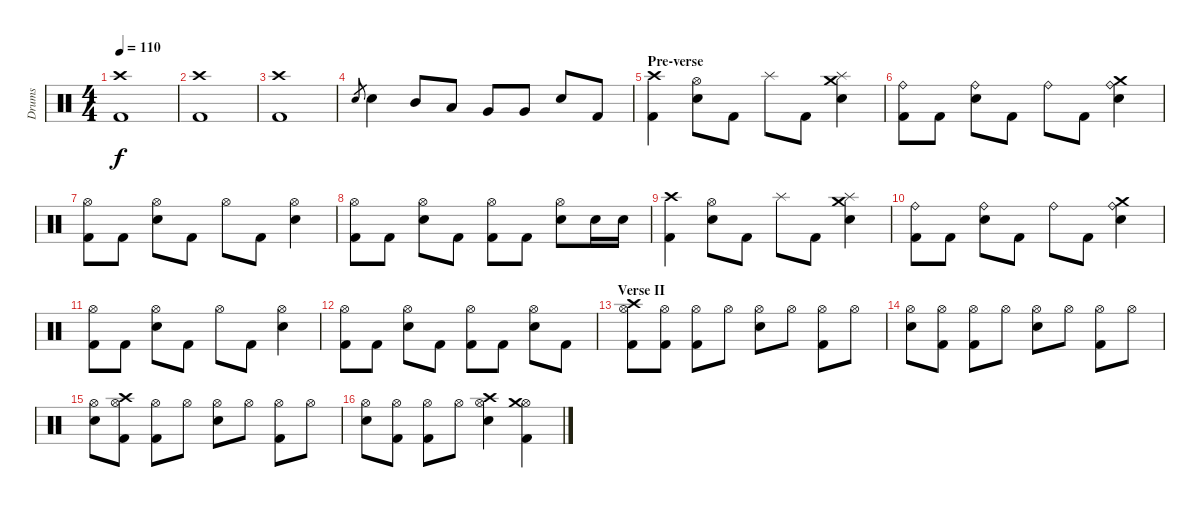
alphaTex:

\track ("Drums" "Drums") {instrument percussion}
\staff {score}
\articulation defaults
\ts (4 4)
\tempo 110
\clef neutral
\ks c
("Kick (hit) 2" "Crash high (hit)").1{dy f} |
("Kick (hit) 2" "Crash high (hit)").1 |
("Kick (hit) 2" "Crash high (hit)").1 |
"Electric Snare (hit)".8{gr} "Electric Snare (hit)".4 "Mid Tom (hit)".8 "Low Tom (hit)".8 "Very Low Tom (hit)".8 "Very Low Tom (hit)".8 "Electric Snare (hit)".8 "Kick (hit) 2".8 |
\section ("" "Pre-verse")
("Crash high (hit)" "Kick (hit) 2").4 ("Electric Snare (hit)" "Hi-Hat (open)").8 "Kick (hit) 2".8 "Splash (hit)".8 "Kick (hit) 2".8 ("Splash (hit)" "Electric Snare (hit)" "Crash medium (hit)").4 |
("Ride (bell)" "Kick (hit) 2").8 "Kick (hit) 2".8 ("Ride (bell)" "Electric Snare (hit)").8 "Kick (hit) 2".8 "Ride (bell)".8 "Kick (hit) 2".8 ("Ride (bell)" "Electric Snare (hit)" "Crash medium (hit)").4 |
("Hi-Hat (open)" "Kick (hit) 2").8 "Kick (hit) 2".8 ("Hi-Hat (open)" "Electric Snare (hit)").8 "Kick (hit) 2".8 "Hi-Hat (open)".8 "Kick (hit) 2".8 ("Hi-Hat (open)" "Electric Snare (hit)").4 |
("Hi-Hat (open)" "Kick (hit) 2").8 "Kick (hit) 2".8 ("Hi-Hat (open)" "Electric Snare (hit)").8 "Kick (hit) 2".8 ("Hi-Hat (open)" "Kick (hit) 2").8 "Kick (hit) 2".8 ("Hi-Hat (open)" "Electric Snare (hit)").8 "Electric Snare (hit)".16 "Electric Snare (hit)".16 |
("Crash high (hit)" "Kick (hit) 2").4 ("Electric Snare (hit)" "Hi-Hat (open)").8 "Kick (hit) 2".8 "Splash (hit)".8 "Kick (hit) 2".8 ("Splash (hit)" "Electric Snare (hit)" "Crash medium (hit)").4 |
("Ride (bell)" "Kick (hit) 2").8 "Kick (hit) 2".8 ("Ride (bell)" "Electric Snare (hit)").8 "Kick (hit) 2".8 "Ride (bell)".8 "Kick (hit) 2".8 ("Ride (bell)" "Electric Snare (hit)" "Crash medium (hit)").4 |
("Hi-Hat (open)" "Kick (hit) 2").8 "Kick (hit) 2".8 ("Hi-Hat (open)" "Electric Snare (hit)").8 "Kick (hit) 2".8 "Hi-Hat (open)".8 "Kick (hit) 2".8 ("Hi-Hat (open)" "Electric Snare (hit)").4 |
("Hi-Hat (open)" "Kick (hit) 2").8 "Kick (hit) 2".8 ("Hi-Hat (open)" "Electric Snare (hit)").8 "Kick (hit) 2".8 ("Hi-Hat (open)" "Kick (hit) 2").8 "Kick (hit) 2".8 ("Hi-Hat (open)" "Electric Snare (hit)").8 "Kick (hit) 2".8 |
\section ("" "Verse II")
("Hi-Hat (open)" "Kick (hit) 2" "Crash high (hit)").8 ("Hi-Hat (open)" "Kick (hit) 2").8 ("Hi-Hat (open)" "Kick (hit) 2").8 "Hi-Hat (open)".8 ("Hi-Hat (open)" "Electric Snare (hit)").8 "Hi-Hat (open)".8 ("Hi-Hat (open)" "Kick (hit) 2").8 "Hi-Hat (open)".8 |
("Hi-Hat (open)" "Electric Snare (hit)").8 ("Hi-Hat (open)" "Kick (hit) 2").8 ("Hi-Hat (open)" "Kick (hit) 2").8 "Hi-Hat (open)".8 ("Hi-Hat (open)" "Electric Snare (hit)").8 "Hi-Hat (open)".8 ("Hi-Hat (open)" "Kick (hit) 2").8 "Hi-Hat (open)".8 |
("Hi-Hat (open)" "Electric Snare (hit)").8 ("Hi-Hat (open)" "Kick (hit) 2" "Crash high (hit)").8 ("Hi-Hat (open)" "Kick (hit) 2").8 "Hi-Hat (open)".8 ("Hi-Hat (open)" "Electric Snare (hit)").8 "Hi-Hat (open)".8 ("Hi-Hat (open)" "Kick (hit) 2").8 "Hi-Hat (open)".8 |
("Hi-Hat (open)" "Electric Snare (hit)").8 ("Hi-Hat (open)" "Kick (hit) 2").8 ("Hi-Hat (open)" "Kick (hit) 2").8 "Hi-Hat (open)".8 ("Hi-Hat (open)" "Electric Snare (hit)" "Crash high (hit)").4 ("Hi-Hat (open)" "Kick (hit) 2" "Crash medium (hit)").4
